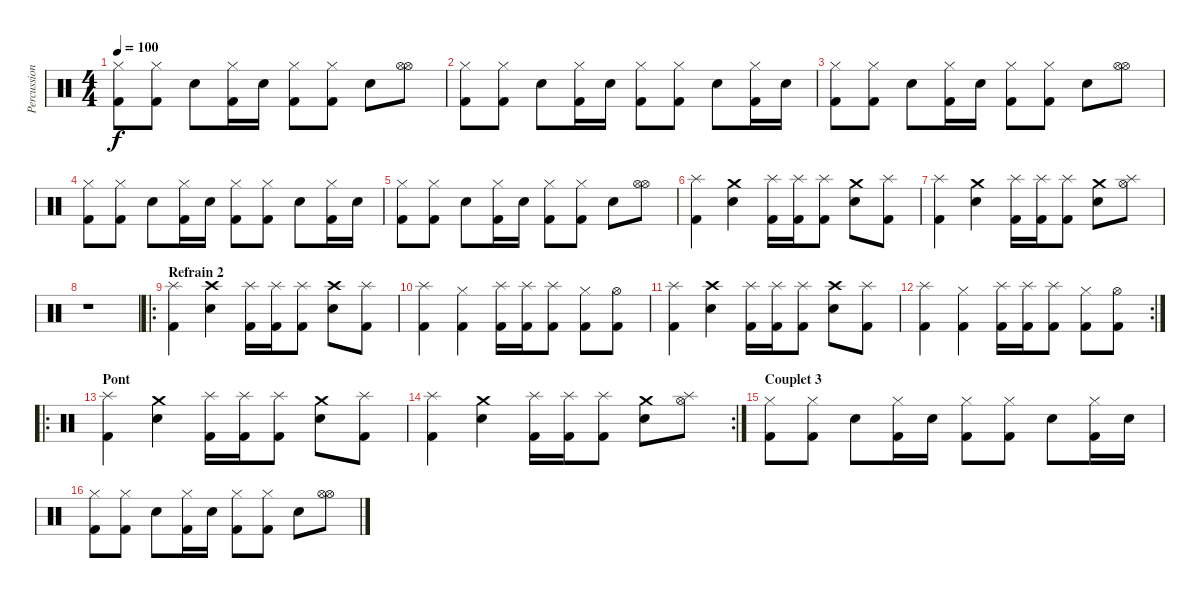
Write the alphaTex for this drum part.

\track ("Percussions" "Percussion") {instrument percussion}
\staff {score}
\articulation defaults
\ts (4 4)
\tempo 100
\clef neutral
\ks c
("Hi-Hat (closed)" "Kick (hit) 2").8{dy f} ("Hi-Hat (closed)" "Kick (hit) 2").8 "Snare (hit) 2".8 ("Hi-Hat (closed)" "Kick (hit) 2").16 "Snare (hit) 2".16 ("Hi-Hat (closed)" "Kick (hit) 2").8 ("Hi-Hat (closed)" "Kick (hit) 2").8 "Snare (hit) 2".8 ("Hi-Hat (open)" "Hi-Hat (open)").8 |
("Hi-Hat (closed)" "Kick (hit) 2").8 ("Hi-Hat (closed)" "Kick (hit) 2").8 "Snare (hit) 2".8 ("Hi-Hat (closed)" "Kick (hit) 2").16 "Snare (hit) 2".16 ("Hi-Hat (closed)" "Kick (hit) 2").8 ("Hi-Hat (closed)" "Kick (hit) 2").8 "Snare (hit) 2".8 ("Hi-Hat (closed)" "Kick (hit) 2").16 "Snare (hit) 2".16 |
("Hi-Hat (closed)" "Kick (hit) 2").8 ("Hi-Hat (closed)" "Kick (hit) 2").8 "Snare (hit) 2".8 ("Hi-Hat (closed)" "Kick (hit) 2").16 "Snare (hit) 2".16 ("Hi-Hat (closed)" "Kick (hit) 2").8 ("Hi-Hat (closed)" "Kick (hit) 2").8 "Snare (hit) 2".8 ("Hi-Hat (open)" "Hi-Hat (open)").8 |
("Hi-Hat (closed)" "Kick (hit) 2").8 ("Hi-Hat (closed)" "Kick (hit) 2").8 "Snare (hit) 2".8 ("Hi-Hat (closed)" "Kick (hit) 2").16 "Snare (hit) 2".16 ("Hi-Hat (closed)" "Kick (hit) 2").8 ("Hi-Hat (closed)" "Kick (hit) 2").8 "Snare (hit) 2".8 ("Hi-Hat (closed)" "Kick (hit) 2").16 "Snare (hit) 2".16 |
("Hi-Hat (closed)" "Kick (hit) 2").8 ("Hi-Hat (closed)" "Kick (hit) 2").8 "Snare (hit) 2".8 ("Hi-Hat (closed)" "Kick (hit) 2").16 "Snare (hit) 2".16 ("Hi-Hat (closed)" "Kick (hit) 2").8 ("Hi-Hat (closed)" "Kick (hit) 2").8 "Snare (hit) 2".8 ("Hi-Hat (open)" "Hi-Hat (open)").8 |
("Splash (hit)" "Kick (hit) 2").4 ("Crash medium (hit)" "Snare (hit) 2").4 ("Splash (hit)" "Kick (hit) 2").16 ("Splash (hit)" "Kick (hit) 2").16 ("Splash (hit)" "Kick (hit) 2").8 ("Crash medium (hit)" "Snare (hit) 2").8 ("Splash (hit)" "Kick (hit) 2").8 |
("Splash (hit)" "Kick (hit) 2").4 ("Crash medium (hit)" "Snare (hit) 2").4 ("Splash (hit)" "Kick (hit) 2").16 ("Splash (hit)" "Kick (hit) 2").16 ("Splash (hit)" "Kick (hit) 2").8 ("Crash medium (hit)" "Snare (hit) 2").8 ("Splash (hit)" "Hi-Hat (open)").8 |
r.1 |
\ro
\section ("" "Refrain 2")
("Splash (hit)" "Kick (hit) 2").4 ("Snare (hit) 2" "Crash high (hit)").4 ("Splash (hit)" "Kick (hit) 2").16 ("Splash (hit)" "Kick (hit) 2").16 ("Splash (hit)" "Kick (hit) 2").8 ("Snare (hit) 2" "Crash high (hit)").8 ("Splash (hit)" "Kick (hit) 2").8 |
("Splash (hit)" "Kick (hit) 2").4 ("Hi-Hat (closed)" "Kick (hit) 2").4 ("Splash (hit)" "Kick (hit) 2").16 ("Splash (hit)" "Kick (hit) 2").16 ("Splash (hit)" "Kick (hit) 2").8 ("Hi-Hat (closed)" "Kick (hit) 2").8 ("Hi-Hat (open)" "Kick (hit) 2").8 |
("Splash (hit)" "Kick (hit) 2").4 ("Crash high (hit)" "Snare (hit) 2").4 ("Splash (hit)" "Kick (hit) 2").16 ("Splash (hit)" "Kick (hit) 2").16 ("Splash (hit)" "Kick (hit) 2").8 ("Crash high (hit)" "Snare (hit) 2").8 ("Splash (hit)" "Kick (hit) 2").8 |
\rc 2
("Splash (hit)" "Kick (hit) 2").4 ("Hi-Hat (closed)" "Kick (hit) 2").4 ("Splash (hit)" "Kick (hit) 2").16 ("Splash (hit)" "Kick (hit) 2").16 ("Splash (hit)" "Kick (hit) 2").8 ("Hi-Hat (closed)" "Kick (hit) 2").8 ("Hi-Hat (open)" "Kick (hit) 2").8 |
\ro
\section ("" "Pont")
("Splash (hit)" "Kick (hit) 2").4 ("Crash medium (hit)" "Snare (hit) 2").4 ("Splash (hit)" "Kick (hit) 2").16 ("Splash (hit)" "Kick (hit) 2").16 ("Splash (hit)" "Kick (hit) 2").8 ("Crash medium (hit)" "Snare (hit) 2").8 ("Splash (hit)" "Kick (hit) 2").8 |
\rc 2
("Splash (hit)" "Kick (hit) 2").4 ("Crash medium (hit)" "Snare (hit) 2").4 ("Splash (hit)" "Kick (hit) 2").16 ("Splash (hit)" "Kick (hit) 2").16 ("Splash (hit)" "Kick (hit) 2").8 ("Crash medium (hit)" "Snare (hit) 2").8 ("Splash (hit)" "Hi-Hat (open)").8 |
\section ("" "Couplet 3")
("Hi-Hat (closed)" "Kick (hit) 2").8 ("Hi-Hat (closed)" "Kick (hit) 2").8 "Snare (hit) 2".8 ("Hi-Hat (closed)" "Kick (hit) 2").16 "Snare (hit) 2".16 ("Hi-Hat (closed)" "Kick (hit) 2").8 ("Hi-Hat (closed)" "Kick (hit) 2").8 "Snare (hit) 2".8 ("Hi-Hat (closed)" "Kick (hit) 2").16 "Snare (hit) 2".16 |
("Hi-Hat (closed)" "Kick (hit) 2").8 ("Hi-Hat (closed)" "Kick (hit) 2").8 "Snare (hit) 2".8 ("Hi-Hat (closed)" "Kick (hit) 2").16 "Snare (hit) 2".16 ("Hi-Hat (closed)" "Kick (hit) 2").8 ("Hi-Hat (closed)" "Kick (hit) 2").8 "Snare (hit) 2".8 ("Hi-Hat (open)" "Hi-Hat (open)").8
